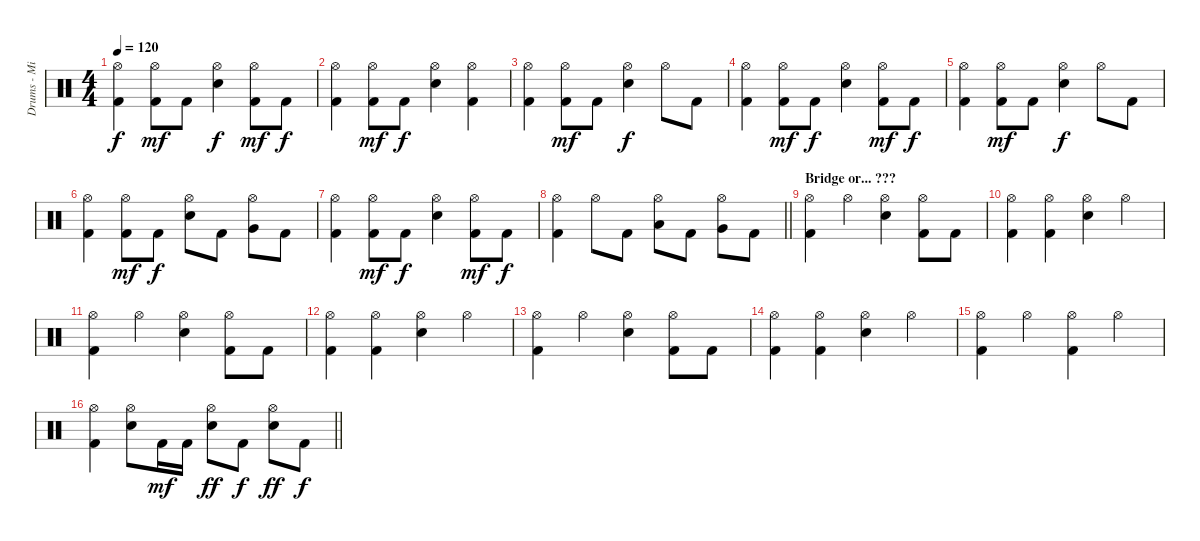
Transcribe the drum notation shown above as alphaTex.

\track ("Drums - Mikko" "Drums - Mi") {instrument percussion}
\staff {score}
\articulation defaults
\ts (4 4)
\tempo 120
\clef neutral
\ks c
("Hi-Hat (open)" "Kick (hit) 2").4{dy f} ("Hi-Hat (open)" "Kick (hit) 2").8{dy mf} "Kick (hit) 2".8 ("Hi-Hat (open)" "Snare (hit) 2").4{dy f} ("Hi-Hat (open)" "Kick (hit) 2").8{dy mf} "Kick (hit) 2".8{dy f} |
("Hi-Hat (open)" "Kick (hit) 2").4 ("Hi-Hat (open)" "Kick (hit) 2").8{dy mf} "Kick (hit) 2".8{dy f} ("Hi-Hat (open)" "Snare (hit) 2").4 ("Hi-Hat (open)" "Kick (hit) 2").4 |
("Hi-Hat (open)" "Kick (hit) 2").4 ("Hi-Hat (open)" "Kick (hit) 2").8{dy mf} "Kick (hit) 2".8 ("Hi-Hat (open)" "Snare (hit) 2").4{dy f} "Hi-Hat (open)".8 "Kick (hit) 2".8 |
("Hi-Hat (open)" "Kick (hit) 2").4 ("Hi-Hat (open)" "Kick (hit) 2").8{dy mf} "Kick (hit) 2".8{dy f} ("Hi-Hat (open)" "Snare (hit) 2").4 ("Hi-Hat (open)" "Kick (hit) 2").8{dy mf} "Kick (hit) 2".8{dy f} |
("Hi-Hat (open)" "Kick (hit) 2").4 ("Hi-Hat (open)" "Kick (hit) 2").8{dy mf} "Kick (hit) 2".8 ("Hi-Hat (open)" "Snare (hit) 2").4{dy f} "Hi-Hat (open)".8 "Kick (hit) 2".8 |
("Hi-Hat (open)" "Kick (hit) 2").4 ("Hi-Hat (open)" "Kick (hit) 2").8{dy mf} "Kick (hit) 2".8{dy f} ("Hi-Hat (open)" "Snare (hit) 2").8 "Kick (hit) 2".8 ("Hi-Hat (open)" "Very Low Tom (hit)").8 "Kick (hit) 2".8 |
("Hi-Hat (open)" "Kick (hit) 2").4 ("Hi-Hat (open)" "Kick (hit) 2").8{dy mf} "Kick (hit) 2".8{dy f} ("Hi-Hat (open)" "Snare (hit) 2").4 ("Hi-Hat (open)" "Kick (hit) 2").8{dy mf} "Kick (hit) 2".8{dy f} |
\barLineRight lightlight
("Hi-Hat (open)" "Kick (hit) 2").4 "Hi-Hat (open)".8 "Kick (hit) 2".8 ("Hi-Hat (open)" "Low Tom (hit)").8 "Kick (hit) 2".8 ("Hi-Hat (open)" "Very Low Tom (hit)").8 "Kick (hit) 2".8 |
\section ("" "Bridge or... ???")
("Hi-Hat (open)" "Kick (hit) 2").4 "Hi-Hat (open)".4 ("Hi-Hat (open)" "Snare (hit) 2").4 ("Hi-Hat (open)" "Kick (hit) 2").8 "Kick (hit) 2".8 |
("Hi-Hat (open)" "Kick (hit) 2").4 ("Hi-Hat (open)" "Kick (hit) 2").4 ("Hi-Hat (open)" "Snare (hit) 2").4 "Hi-Hat (open)".4 |
("Hi-Hat (open)" "Kick (hit) 2").4 "Hi-Hat (open)".4 ("Hi-Hat (open)" "Snare (hit) 2").4 ("Hi-Hat (open)" "Kick (hit) 2").8 "Kick (hit) 2".8 |
("Hi-Hat (open)" "Kick (hit) 2").4 ("Hi-Hat (open)" "Kick (hit) 2").4 ("Hi-Hat (open)" "Snare (hit) 2").4 "Hi-Hat (open)".4 |
("Hi-Hat (open)" "Kick (hit) 2").4 "Hi-Hat (open)".4 ("Hi-Hat (open)" "Snare (hit) 2").4 ("Hi-Hat (open)" "Kick (hit) 2").8 "Kick (hit) 2".8 |
("Hi-Hat (open)" "Kick (hit) 2").4 ("Hi-Hat (open)" "Kick (hit) 2").4 ("Hi-Hat (open)" "Snare (hit) 2").4 "Hi-Hat (open)".4 |
("Hi-Hat (open)" "Kick (hit) 2").4 "Hi-Hat (open)".4 ("Hi-Hat (open)" "Kick (hit) 2").4 "Hi-Hat (open)".4 |
\barLineRight lightlight
("Hi-Hat (open)" "Kick (hit) 2").4 ("Hi-Hat (open)" "Snare (hit) 2").8 "Kick (hit) 2".16{dy mf} "Kick (hit) 2".16 ("Hi-Hat (open)" "Snare (hit) 2").8{dy ff} "Kick (hit) 2".8{dy f} ("Hi-Hat (open)" "Snare (hit) 2").8{dy ff} "Kick (hit) 2".8{dy f}
